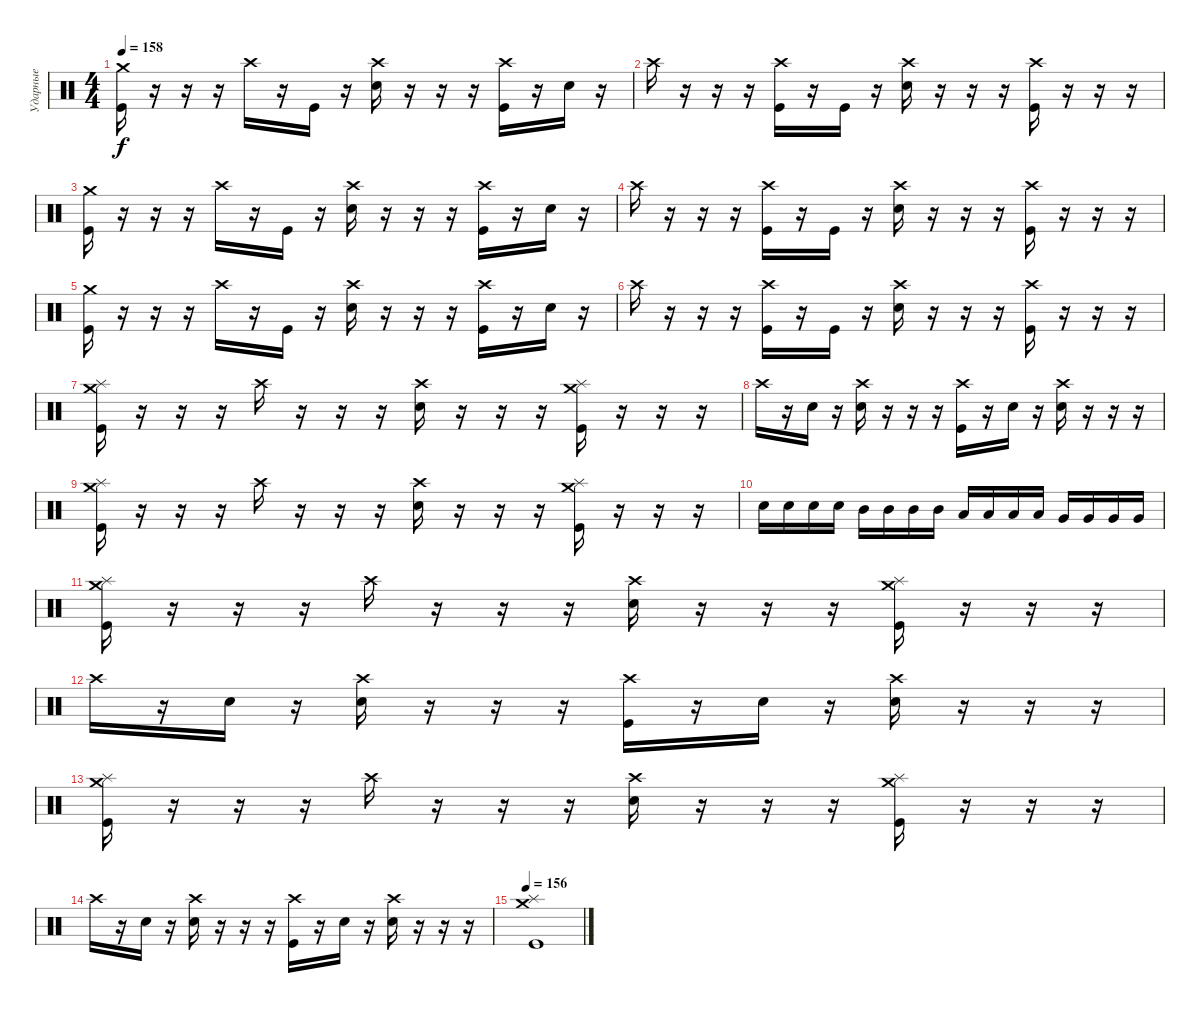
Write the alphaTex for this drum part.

\track ("Ударные" "Ударные") {instrument percussion}
\staff {score}
\articulation defaults
\ts (4 4)
\tempo 158
\clef neutral
\ks c
("Crash medium (hit)" "Kick (hit)").16{dy f} r.16 r.16 r.16 "Crash high (hit)".16 r.16 "Kick (hit)".16 r.16 ("Crash high (hit)" "Electric Snare (hit)").16 r.16 r.16 r.16 ("Crash high (hit)" "Kick (hit)").16 r.16 "Electric Snare (hit)".16 r.16 |
"Crash high (hit)".16 r.16 r.16 r.16 ("Crash high (hit)" "Kick (hit)").16 r.16 "Kick (hit)".16 r.16 ("Crash high (hit)" "Electric Snare (hit)").16 r.16 r.16 r.16 ("Crash high (hit)" "Kick (hit)").16 r.16 r.16 r.16 |
("Crash medium (hit)" "Kick (hit)").16 r.16 r.16 r.16 "Crash high (hit)".16 r.16 "Kick (hit)".16 r.16 ("Crash high (hit)" "Electric Snare (hit)").16 r.16 r.16 r.16 ("Crash high (hit)" "Kick (hit)").16 r.16 "Electric Snare (hit)".16 r.16 |
"Crash high (hit)".16 r.16 r.16 r.16 ("Crash high (hit)" "Kick (hit)").16 r.16 "Kick (hit)".16 r.16 ("Crash high (hit)" "Electric Snare (hit)").16 r.16 r.16 r.16 ("Crash high (hit)" "Kick (hit)").16 r.16 r.16 r.16 |
("Crash medium (hit)" "Kick (hit)").16 r.16 r.16 r.16 "Crash high (hit)".16 r.16 "Kick (hit)".16 r.16 ("Crash high (hit)" "Electric Snare (hit)").16 r.16 r.16 r.16 ("Crash high (hit)" "Kick (hit)").16 r.16 "Electric Snare (hit)".16 r.16 |
"Crash high (hit)".16 r.16 r.16 r.16 ("Crash high (hit)" "Kick (hit)").16 r.16 "Kick (hit)".16 r.16 ("Crash high (hit)" "Electric Snare (hit)").16 r.16 r.16 r.16 ("Crash high (hit)" "Kick (hit)").16 r.16 r.16 r.16 |
("Splash (hit)" "Crash medium (hit)" "Kick (hit)").16 r.16 r.16 r.16 "Crash high (hit)".16 r.16 r.16 r.16 ("Crash high (hit)" "Electric Snare (hit)").16 r.16 r.16 r.16 ("Splash (hit)" "Crash medium (hit)" "Kick (hit)").16 r.16 r.16 r.16 |
"Crash high (hit)".16 r.16 "Electric Snare (hit)".16 r.16 ("Crash high (hit)" "Electric Snare (hit)").16 r.16 r.16 r.16 ("Crash high (hit)" "Kick (hit)").16 r.16 "Electric Snare (hit)".16 r.16 ("Crash high (hit)" "Electric Snare (hit)").16 r.16 r.16 r.16 |
("Splash (hit)" "Crash medium (hit)" "Kick (hit)").16 r.16 r.16 r.16 "Crash high (hit)".16 r.16 r.16 r.16 ("Crash high (hit)" "Electric Snare (hit)").16 r.16 r.16 r.16 ("Splash (hit)" "Crash medium (hit)" "Kick (hit)").16 r.16 r.16 r.16 |
"Electric Snare (hit)".16 "Electric Snare (hit)".16 "Electric Snare (hit)".16 "Electric Snare (hit)".16 "Mid Tom (hit)".16 "Mid Tom (hit)".16 "Mid Tom (hit)".16 "Mid Tom (hit)".16 "Low Tom (hit)".16 "Low Tom (hit)".16 "Low Tom (hit)".16 "Low Tom (hit)".16 "Very Low Tom (hit)".16 "Very Low Tom (hit)".16 "Very Low Tom (hit)".16 "Very Low Tom (hit)".16 |
("Splash (hit)" "Crash medium (hit)" "Kick (hit)").16 r.16 r.16 r.16 "Crash high (hit)".16 r.16 r.16 r.16 ("Crash high (hit)" "Electric Snare (hit)").16 r.16 r.16 r.16 ("Splash (hit)" "Crash medium (hit)" "Kick (hit)").16 r.16 r.16 r.16 |
"Crash high (hit)".16 r.16 "Electric Snare (hit)".16 r.16 ("Crash high (hit)" "Electric Snare (hit)").16 r.16 r.16 r.16 ("Crash high (hit)" "Kick (hit)").16 r.16 "Electric Snare (hit)".16 r.16 ("Crash high (hit)" "Electric Snare (hit)").16 r.16 r.16 r.16 |
("Splash (hit)" "Crash medium (hit)" "Kick (hit)").16 r.16 r.16 r.16 "Crash high (hit)".16 r.16 r.16 r.16 ("Crash high (hit)" "Electric Snare (hit)").16 r.16 r.16 r.16 ("Splash (hit)" "Crash medium (hit)" "Kick (hit)").16 r.16 r.16 r.16 |
"Crash high (hit)".16 r.16 "Electric Snare (hit)".16 r.16 ("Crash high (hit)" "Electric Snare (hit)").16 r.16 r.16 r.16 ("Crash high (hit)" "Kick (hit)").16 r.16 "Electric Snare (hit)".16 r.16 ("Crash high (hit)" "Electric Snare (hit)").16 r.16 r.16 r.16 |
\tempo 156
("Splash (hit)" "Crash medium (hit)" "Kick (hit)").1
